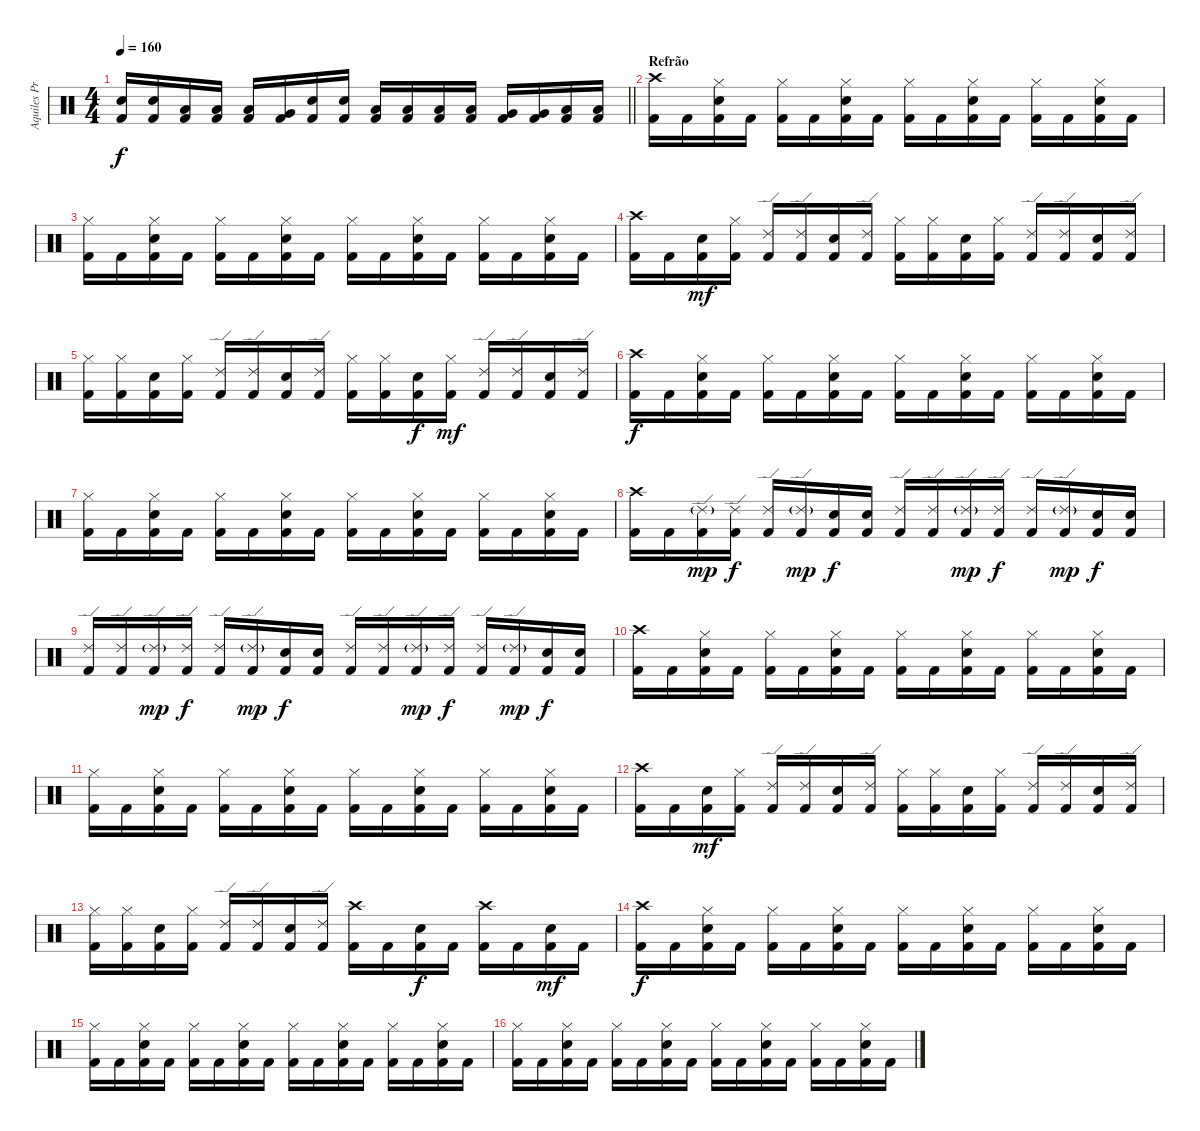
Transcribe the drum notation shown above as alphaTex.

\track ("Aquiles Priester" "Aquiles Pr") {instrument percussion}
\staff {score}
\articulation defaults
\ts (4 4)
\tempo 160
\clef neutral
\barLineRight lightlight
\ks c
("Electric Snare (hit)" "Kick (hit) 2").16{dy f} ("Electric Snare (hit)" "Kick (hit) 2").16 ("Low Tom (hit)" "Kick (hit) 2").16 ("Low Tom (hit)" "Kick (hit) 2").16 ("Low Tom (hit)" "Kick (hit) 2").16 ("Very Low Tom (hit)" "Kick (hit) 2").16 ("Electric Snare (hit)" "Kick (hit) 2").16 ("Electric Snare (hit)" "Kick (hit) 2").16 ("Low Tom (hit)" "Kick (hit) 2").16 ("Low Tom (hit)" "Kick (hit) 2").16 ("Low Tom (hit)" "Kick (hit) 2").16 ("Low Tom (hit)" "Kick (hit) 2").16 ("Very Low Tom (hit)" "Kick (hit) 2").16 ("Very Low Tom (hit)" "Kick (hit) 2").16 ("Low Floor Tom (hit)" "Kick (hit) 2").16 ("Low Floor Tom (hit)" "Kick (hit) 2").16 |
\section ("" "Refrão")
("Crash high (hit)" "Kick (hit) 2").16 "Kick (hit) 2".16 ("Hi-Hat (closed)" "Electric Snare (hit)" "Kick (hit) 2").16 "Kick (hit) 2".16 ("Hi-Hat (closed)" "Kick (hit) 2").16 "Kick (hit) 2".16 ("Hi-Hat (closed)" "Electric Snare (hit)" "Kick (hit) 2").16 "Kick (hit) 2".16 ("Hi-Hat (closed)" "Kick (hit) 2").16 "Kick (hit) 2".16 ("Hi-Hat (closed)" "Electric Snare (hit)" "Kick (hit) 2").16 "Kick (hit) 2".16 ("Hi-Hat (closed)" "Kick (hit) 2").16 "Kick (hit) 2".16 ("Hi-Hat (closed)" "Electric Snare (hit)" "Kick (hit) 2").16 "Kick (hit) 2".16 |
("Hi-Hat (closed)" "Kick (hit) 2").16 "Kick (hit) 2".16 ("Hi-Hat (closed)" "Electric Snare (hit)" "Kick (hit) 2").16 "Kick (hit) 2".16 ("Hi-Hat (closed)" "Kick (hit) 2").16 "Kick (hit) 2".16 ("Hi-Hat (closed)" "Electric Snare (hit)" "Kick (hit) 2").16 "Kick (hit) 2".16 ("Hi-Hat (closed)" "Kick (hit) 2").16 "Kick (hit) 2".16 ("Hi-Hat (closed)" "Electric Snare (hit)" "Kick (hit) 2").16 "Kick (hit) 2".16 ("Hi-Hat (closed)" "Kick (hit) 2").16 "Kick (hit) 2".16 ("Hi-Hat (closed)" "Electric Snare (hit)" "Kick (hit) 2").16 "Kick (hit) 2".16 |
("Crash high (hit)" "Kick (hit) 2").16 "Kick (hit) 2".16 ("Electric Snare (hit)" "Kick (hit) 2").16{dy mf} ("Hi-Hat (closed)" "Kick (hit) 2").16 ("Ride (edge) 2" "Kick (hit) 2").16 ("Ride (edge) 2" "Kick (hit) 2").16 ("Electric Snare (hit)" "Kick (hit) 2").16 ("Ride (edge) 2" "Kick (hit) 2").16 ("Hi-Hat (closed)" "Kick (hit) 2").16 ("Hi-Hat (closed)" "Kick (hit) 2").16 ("Electric Snare (hit)" "Kick (hit) 2").16 ("Hi-Hat (closed)" "Kick (hit) 2").16 ("Ride (edge) 2" "Kick (hit) 2").16 ("Ride (edge) 2" "Kick (hit) 2").16 ("Electric Snare (hit)" "Kick (hit) 2").16 ("Ride (edge) 2" "Kick (hit) 2").16 |
("Hi-Hat (closed)" "Kick (hit) 2").16 ("Hi-Hat (closed)" "Kick (hit) 2").16 ("Electric Snare (hit)" "Kick (hit) 2").16 ("Hi-Hat (closed)" "Kick (hit) 2").16 ("Ride (edge) 2" "Kick (hit) 2").16 ("Ride (edge) 2" "Kick (hit) 2").16 ("Electric Snare (hit)" "Kick (hit) 2").16 ("Ride (edge) 2" "Kick (hit) 2").16 ("Hi-Hat (closed)" "Kick (hit) 2").16 ("Hi-Hat (closed)" "Kick (hit) 2").16 ("Electric Snare (hit)" "Kick (hit) 2").16{dy f} ("Hi-Hat (closed)" "Kick (hit) 2").16{dy mf} ("Ride (edge) 2" "Kick (hit) 2").16 ("Ride (edge) 2" "Kick (hit) 2").16 ("Electric Snare (hit)" "Kick (hit) 2").16 ("Ride (edge) 2" "Kick (hit) 2").16 |
("Crash high (hit)" "Kick (hit) 2").16{dy f} "Kick (hit) 2".16 ("Hi-Hat (closed)" "Electric Snare (hit)" "Kick (hit) 2").16 "Kick (hit) 2".16 ("Hi-Hat (closed)" "Kick (hit) 2").16 "Kick (hit) 2".16 ("Hi-Hat (closed)" "Electric Snare (hit)" "Kick (hit) 2").16 "Kick (hit) 2".16 ("Hi-Hat (closed)" "Kick (hit) 2").16 "Kick (hit) 2".16 ("Hi-Hat (closed)" "Electric Snare (hit)" "Kick (hit) 2").16 "Kick (hit) 2".16 ("Hi-Hat (closed)" "Kick (hit) 2").16 "Kick (hit) 2".16 ("Hi-Hat (closed)" "Electric Snare (hit)" "Kick (hit) 2").16 "Kick (hit) 2".16 |
("Hi-Hat (closed)" "Kick (hit) 2").16 "Kick (hit) 2".16 ("Hi-Hat (closed)" "Electric Snare (hit)" "Kick (hit) 2").16 "Kick (hit) 2".16 ("Hi-Hat (closed)" "Kick (hit) 2").16 "Kick (hit) 2".16 ("Hi-Hat (closed)" "Electric Snare (hit)" "Kick (hit) 2").16 "Kick (hit) 2".16 ("Hi-Hat (closed)" "Kick (hit) 2").16 "Kick (hit) 2".16 ("Hi-Hat (closed)" "Electric Snare (hit)" "Kick (hit) 2").16 "Kick (hit) 2".16 ("Hi-Hat (closed)" "Kick (hit) 2").16 "Kick (hit) 2".16 ("Hi-Hat (closed)" "Electric Snare (hit)" "Kick (hit) 2").16 "Kick (hit) 2".16 |
("Crash high (hit)" "Kick (hit) 2").16 "Kick (hit) 2".16 ("Ride (edge) 2"{g} "Kick (hit) 2").16{dy mp} ("Ride (edge) 2" "Kick (hit) 2").16{dy f} ("Ride (edge) 2" "Kick (hit) 2").16 ("Ride (edge) 2"{g} "Kick (hit) 2").16{dy mp} ("Electric Snare (hit)" "Kick (hit) 2").16{dy f} ("Electric Snare (hit)" "Kick (hit) 2").16 ("Ride (edge) 2" "Kick (hit) 2").16 ("Ride (edge) 2" "Kick (hit) 2").16 ("Ride (edge) 2"{g} "Kick (hit) 2").16{dy mp} ("Ride (edge) 2" "Kick (hit) 2").16{dy f} ("Ride (edge) 2" "Kick (hit) 2").16 ("Ride (edge) 2"{g} "Kick (hit) 2").16{dy mp} ("Electric Snare (hit)" "Kick (hit) 2").16{dy f} ("Electric Snare (hit)" "Kick (hit) 2").16 |
("Ride (edge) 2" "Kick (hit) 2").16 ("Ride (edge) 2" "Kick (hit) 2").16 ("Ride (edge) 2"{g} "Kick (hit) 2").16{dy mp} ("Ride (edge) 2" "Kick (hit) 2").16{dy f} ("Ride (edge) 2" "Kick (hit) 2").16 ("Ride (edge) 2"{g} "Kick (hit) 2").16{dy mp} ("Electric Snare (hit)" "Kick (hit) 2").16{dy f} ("Electric Snare (hit)" "Kick (hit) 2").16 ("Ride (edge) 2" "Kick (hit) 2").16 ("Ride (edge) 2" "Kick (hit) 2").16 ("Ride (edge) 2"{g} "Kick (hit) 2").16{dy mp} ("Ride (edge) 2" "Kick (hit) 2").16{dy f} ("Ride (edge) 2" "Kick (hit) 2").16 ("Ride (edge) 2"{g} "Kick (hit) 2").16{dy mp} ("Electric Snare (hit)" "Kick (hit) 2").16{dy f} ("Electric Snare (hit)" "Kick (hit) 2").16 |
("Crash high (hit)" "Kick (hit) 2").16 "Kick (hit) 2".16 ("Hi-Hat (closed)" "Electric Snare (hit)" "Kick (hit) 2").16 "Kick (hit) 2".16 ("Hi-Hat (closed)" "Kick (hit) 2").16 "Kick (hit) 2".16 ("Hi-Hat (closed)" "Electric Snare (hit)" "Kick (hit) 2").16 "Kick (hit) 2".16 ("Hi-Hat (closed)" "Kick (hit) 2").16 "Kick (hit) 2".16 ("Hi-Hat (closed)" "Electric Snare (hit)" "Kick (hit) 2").16 "Kick (hit) 2".16 ("Hi-Hat (closed)" "Kick (hit) 2").16 "Kick (hit) 2".16 ("Hi-Hat (closed)" "Electric Snare (hit)" "Kick (hit) 2").16 "Kick (hit) 2".16 |
("Hi-Hat (closed)" "Kick (hit) 2").16 "Kick (hit) 2".16 ("Hi-Hat (closed)" "Electric Snare (hit)" "Kick (hit) 2").16 "Kick (hit) 2".16 ("Hi-Hat (closed)" "Kick (hit) 2").16 "Kick (hit) 2".16 ("Hi-Hat (closed)" "Electric Snare (hit)" "Kick (hit) 2").16 "Kick (hit) 2".16 ("Hi-Hat (closed)" "Kick (hit) 2").16 "Kick (hit) 2".16 ("Hi-Hat (closed)" "Electric Snare (hit)" "Kick (hit) 2").16 "Kick (hit) 2".16 ("Hi-Hat (closed)" "Kick (hit) 2").16 "Kick (hit) 2".16 ("Hi-Hat (closed)" "Electric Snare (hit)" "Kick (hit) 2").16 "Kick (hit) 2".16 |
("Crash high (hit)" "Kick (hit) 2").16 "Kick (hit) 2".16 ("Electric Snare (hit)" "Kick (hit) 2").16{dy mf} ("Hi-Hat (closed)" "Kick (hit) 2").16 ("Ride (edge) 2" "Kick (hit) 2").16 ("Ride (edge) 2" "Kick (hit) 2").16 ("Electric Snare (hit)" "Kick (hit) 2").16 ("Ride (edge) 2" "Kick (hit) 2").16 ("Hi-Hat (closed)" "Kick (hit) 2").16 ("Hi-Hat (closed)" "Kick (hit) 2").16 ("Electric Snare (hit)" "Kick (hit) 2").16 ("Hi-Hat (closed)" "Kick (hit) 2").16 ("Ride (edge) 2" "Kick (hit) 2").16 ("Ride (edge) 2" "Kick (hit) 2").16 ("Electric Snare (hit)" "Kick (hit) 2").16 ("Ride (edge) 2" "Kick (hit) 2").16 |
("Hi-Hat (closed)" "Kick (hit) 2").16 ("Hi-Hat (closed)" "Kick (hit) 2").16 ("Electric Snare (hit)" "Kick (hit) 2").16 ("Hi-Hat (closed)" "Kick (hit) 2").16 ("Ride (edge) 2" "Kick (hit) 2").16 ("Ride (edge) 2" "Kick (hit) 2").16 ("Electric Snare (hit)" "Kick (hit) 2").16 ("Ride (edge) 2" "Kick (hit) 2").16 ("Crash high (hit)" "Kick (hit) 2").16 "Kick (hit) 2".16 ("Electric Snare (hit)" "Kick (hit) 2").16{dy f} "Kick (hit) 2".16 ("Crash high (hit)" "Kick (hit) 2").16 "Kick (hit) 2".16 ("Electric Snare (hit)" "Kick (hit) 2").16{dy mf} "Kick (hit) 2".16 |
("Crash high (hit)" "Kick (hit) 2").16{dy f} "Kick (hit) 2".16 ("Hi-Hat (closed)" "Electric Snare (hit)" "Kick (hit) 2").16 "Kick (hit) 2".16 ("Hi-Hat (closed)" "Kick (hit) 2").16 "Kick (hit) 2".16 ("Hi-Hat (closed)" "Electric Snare (hit)" "Kick (hit) 2").16 "Kick (hit) 2".16 ("Hi-Hat (closed)" "Kick (hit) 2").16 "Kick (hit) 2".16 ("Hi-Hat (closed)" "Electric Snare (hit)" "Kick (hit) 2").16 "Kick (hit) 2".16 ("Hi-Hat (closed)" "Kick (hit) 2").16 "Kick (hit) 2".16 ("Hi-Hat (closed)" "Electric Snare (hit)" "Kick (hit) 2").16 "Kick (hit) 2".16 |
("Hi-Hat (closed)" "Kick (hit) 2").16 "Kick (hit) 2".16 ("Hi-Hat (closed)" "Electric Snare (hit)" "Kick (hit) 2").16 "Kick (hit) 2".16 ("Hi-Hat (closed)" "Kick (hit) 2").16 "Kick (hit) 2".16 ("Hi-Hat (closed)" "Electric Snare (hit)" "Kick (hit) 2").16 "Kick (hit) 2".16 ("Hi-Hat (closed)" "Kick (hit) 2").16 "Kick (hit) 2".16 ("Hi-Hat (closed)" "Electric Snare (hit)" "Kick (hit) 2").16 "Kick (hit) 2".16 ("Hi-Hat (closed)" "Kick (hit) 2").16 "Kick (hit) 2".16 ("Hi-Hat (closed)" "Electric Snare (hit)" "Kick (hit) 2").16 "Kick (hit) 2".16 |
("Hi-Hat (closed)" "Kick (hit) 2").16 "Kick (hit) 2".16 ("Hi-Hat (closed)" "Electric Snare (hit)" "Kick (hit) 2").16 "Kick (hit) 2".16 ("Hi-Hat (closed)" "Kick (hit) 2").16 "Kick (hit) 2".16 ("Hi-Hat (closed)" "Electric Snare (hit)" "Kick (hit) 2").16 "Kick (hit) 2".16 ("Hi-Hat (closed)" "Kick (hit) 2").16 "Kick (hit) 2".16 ("Hi-Hat (closed)" "Electric Snare (hit)" "Kick (hit) 2").16 "Kick (hit) 2".16 ("Hi-Hat (closed)" "Kick (hit) 2").16 "Kick (hit) 2".16 ("Hi-Hat (closed)" "Electric Snare (hit)" "Kick (hit) 2").16 "Kick (hit) 2".16
